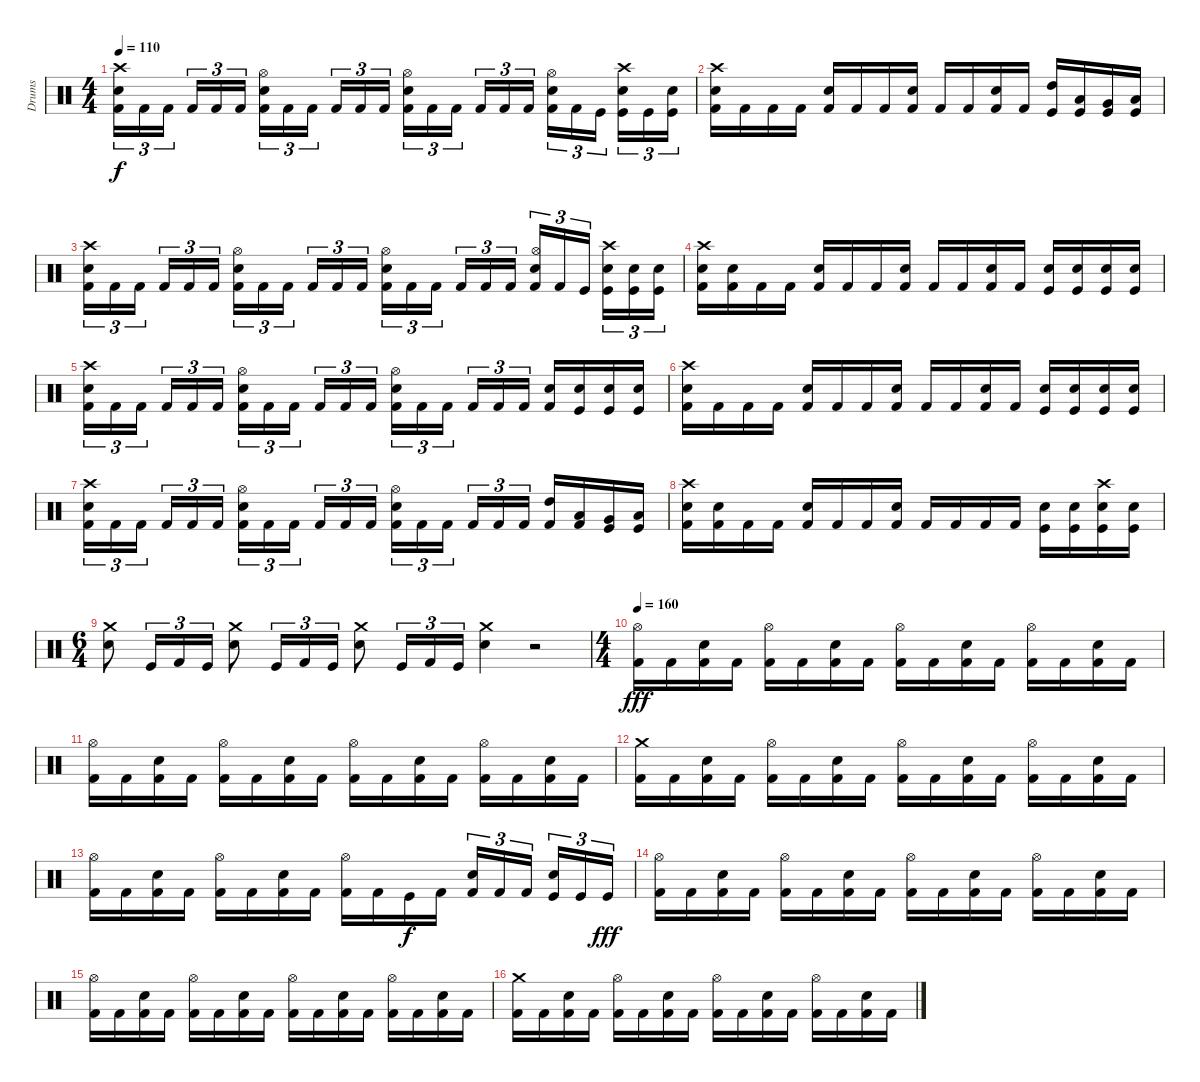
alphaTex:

\track ("Drums" "Drums") {instrument percussion}
\staff {score}
\articulation defaults
\ts (4 4)
\tempo 110
\clef neutral
\ks c
("Crash high (hit)" "Electric Snare (hit)" "Kick (hit) 2").16{tu (3 2) dy f} "Kick (hit) 2".16{tu (3 2)} "Kick (hit) 2".16{tu (3 2)} "Kick (hit) 2".16{tu (3 2)} "Kick (hit) 2".16{tu (3 2)} "Kick (hit) 2".16{tu (3 2)} ("Hi-Hat (open)" "Electric Snare (hit)" "Kick (hit) 2").16{tu (3 2)} "Kick (hit) 2".16{tu (3 2)} "Kick (hit) 2".16{tu (3 2)} "Kick (hit) 2".16{tu (3 2)} "Kick (hit) 2".16{tu (3 2)} "Kick (hit) 2".16{tu (3 2)} ("Hi-Hat (open)" "Electric Snare (hit)" "Kick (hit) 2").16{tu (3 2)} "Kick (hit) 2".16{tu (3 2)} "Kick (hit) 2".16{tu (3 2)} "Kick (hit) 2".16{tu (3 2)} "Kick (hit) 2".16{tu (3 2)} "Kick (hit) 2".16{tu (3 2)} ("Hi-Hat (open)" "Electric Snare (hit)" "Kick (hit) 2").16{tu (3 2)} "Kick (hit) 2".16{tu (3 2)} "Kick (hit)".16{tu (3 2)} ("Crash high (hit)" "Snare (hit) 2" "Kick (hit)").16{tu (3 2)} "Kick (hit)".16{tu (3 2)} ("Snare (hit) 2" "Kick (hit)").16{tu (3 2)} |
("Crash high (hit)" "Electric Snare (hit)" "Kick (hit) 2").16 "Kick (hit) 2".16 "Kick (hit) 2".16 "Kick (hit) 2".16 ("Electric Snare (hit)" "Kick (hit) 2").16 "Kick (hit) 2".16 "Kick (hit) 2".16 ("Electric Snare (hit)" "Kick (hit) 2").16 "Kick (hit) 2".16 "Kick (hit) 2".16 ("Electric Snare (hit)" "Kick (hit) 2").16 "Kick (hit) 2".16 ("High Tom (hit)" "Kick (hit)").16 ("Low Tom (hit)" "Kick (hit)").16 ("Very Low Tom (hit)" "Kick (hit)").16 ("Low Floor Tom (hit)" "Kick (hit)").16 |
("Crash high (hit)" "Electric Snare (hit)" "Kick (hit) 2").16{tu (3 2)} "Kick (hit) 2".16{tu (3 2)} "Kick (hit) 2".16{tu (3 2)} "Kick (hit) 2".16{tu (3 2)} "Kick (hit) 2".16{tu (3 2)} "Kick (hit) 2".16{tu (3 2)} ("Hi-Hat (open)" "Electric Snare (hit)" "Kick (hit) 2").16{tu (3 2)} "Kick (hit) 2".16{tu (3 2)} "Kick (hit) 2".16{tu (3 2)} "Kick (hit) 2".16{tu (3 2)} "Kick (hit) 2".16{tu (3 2)} "Kick (hit) 2".16{tu (3 2)} ("Hi-Hat (open)" "Electric Snare (hit)" "Kick (hit) 2").16{tu (3 2)} "Kick (hit) 2".16{tu (3 2)} "Kick (hit) 2".16{tu (3 2)} "Kick (hit) 2".16{tu (3 2)} "Kick (hit) 2".16{tu (3 2)} "Kick (hit) 2".16{tu (3 2)} ("Hi-Hat (open)" "Snare (hit) 2" "Kick (hit) 2").16{tu (3 2)} "Kick (hit) 2".16{tu (3 2)} "Kick (hit)".16{tu (3 2)} ("Crash high (hit)" "Snare (hit) 2" "Kick (hit)").16{tu (3 2)} ("Snare (hit) 2" "Kick (hit)").16{tu (3 2)} ("Snare (hit) 2" "Kick (hit)").16{tu (3 2)} |
("Crash high (hit)" "Electric Snare (hit)" "Kick (hit) 2").16 ("Electric Snare (hit)" "Kick (hit) 2").16 "Kick (hit) 2".16 "Kick (hit) 2".16 ("Electric Snare (hit)" "Kick (hit) 2").16 "Kick (hit) 2".16 "Kick (hit) 2".16 ("Electric Snare (hit)" "Kick (hit) 2").16 "Kick (hit) 2".16 "Kick (hit) 2".16 ("Electric Snare (hit)" "Kick (hit) 2").16 "Kick (hit) 2".16 ("Electric Snare (hit)" "Kick (hit)").16 ("Electric Snare (hit)" "Kick (hit)").16 ("Electric Snare (hit)" "Kick (hit)").16 ("Electric Snare (hit)" "Kick (hit)").16 |
("Crash high (hit)" "Electric Snare (hit)" "Kick (hit) 2").16{tu (3 2)} "Kick (hit) 2".16{tu (3 2)} "Kick (hit) 2".16{tu (3 2)} "Kick (hit) 2".16{tu (3 2)} "Kick (hit) 2".16{tu (3 2)} "Kick (hit) 2".16{tu (3 2)} ("Hi-Hat (open)" "Electric Snare (hit)" "Kick (hit) 2").16{tu (3 2)} "Kick (hit) 2".16{tu (3 2)} "Kick (hit) 2".16{tu (3 2)} "Kick (hit) 2".16{tu (3 2)} "Kick (hit) 2".16{tu (3 2)} "Kick (hit) 2".16{tu (3 2)} ("Hi-Hat (open)" "Electric Snare (hit)" "Kick (hit) 2").16{tu (3 2)} "Kick (hit) 2".16{tu (3 2)} "Kick (hit) 2".16{tu (3 2)} "Kick (hit) 2".16{tu (3 2)} "Kick (hit) 2".16{tu (3 2)} "Kick (hit) 2".16{tu (3 2)} ("Snare (hit) 2" "Kick (hit) 2").16 ("Snare (hit) 2" "Kick (hit)").16 ("Snare (hit) 2" "Kick (hit)").16 ("Snare (hit) 2" "Kick (hit)").16 |
("Crash high (hit)" "Electric Snare (hit)" "Kick (hit) 2").16 "Kick (hit) 2".16 "Kick (hit) 2".16 "Kick (hit) 2".16 ("Electric Snare (hit)" "Kick (hit) 2").16 "Kick (hit) 2".16 "Kick (hit) 2".16 ("Electric Snare (hit)" "Kick (hit) 2").16 "Kick (hit) 2".16 "Kick (hit) 2".16 ("Electric Snare (hit)" "Kick (hit) 2").16 "Kick (hit) 2".16 ("Electric Snare (hit)" "Kick (hit)").16 ("Electric Snare (hit)" "Kick (hit)").16 ("Electric Snare (hit)" "Kick (hit)").16 ("Electric Snare (hit)" "Kick (hit)").16 |
("Crash high (hit)" "Electric Snare (hit)" "Kick (hit) 2").16{tu (3 2)} "Kick (hit) 2".16{tu (3 2)} "Kick (hit) 2".16{tu (3 2)} "Kick (hit) 2".16{tu (3 2)} "Kick (hit) 2".16{tu (3 2)} "Kick (hit) 2".16{tu (3 2)} ("Hi-Hat (open)" "Electric Snare (hit)" "Kick (hit) 2").16{tu (3 2)} "Kick (hit) 2".16{tu (3 2)} "Kick (hit) 2".16{tu (3 2)} "Kick (hit) 2".16{tu (3 2)} "Kick (hit) 2".16{tu (3 2)} "Kick (hit) 2".16{tu (3 2)} ("Hi-Hat (open)" "Electric Snare (hit)" "Kick (hit) 2").16{tu (3 2)} "Kick (hit) 2".16{tu (3 2)} "Kick (hit) 2".16{tu (3 2)} "Kick (hit) 2".16{tu (3 2)} "Kick (hit) 2".16{tu (3 2)} "Kick (hit) 2".16{tu (3 2)} ("High Tom (hit)" "Kick (hit) 2").16 ("Low Tom (hit)" "Kick (hit) 2").16 ("Very Low Tom (hit)" "Kick (hit)").16 ("Low Floor Tom (hit)" "Kick (hit)").16 |
("Crash high (hit)" "Electric Snare (hit)" "Kick (hit) 2").16 ("Electric Snare (hit)" "Kick (hit) 2").16 "Kick (hit) 2".16 "Kick (hit) 2".16 ("Electric Snare (hit)" "Kick (hit) 2").16 "Kick (hit) 2".16 "Kick (hit) 2".16 ("Electric Snare (hit)" "Kick (hit) 2").16 "Kick (hit) 2".16 "Kick (hit) 2".16 "Kick (hit) 2".16 "Kick (hit) 2".16 ("Snare (hit) 2" "Kick (hit)").16 ("Snare (hit) 2" "Kick (hit)").16 ("Crash high (hit)" "Electric Snare (hit)" "Kick (hit)").16 ("Electric Snare (hit)" "Kick (hit)").16 |
\ts (6 4)
("Crash medium (hit)" "Electric Snare (hit)").8 "Kick (hit)".16{tu (3 2)} "Kick (hit) 2".16{tu (3 2)} "Kick (hit)".16{tu (3 2)} ("Crash medium (hit)" "Electric Snare (hit)").8 "Kick (hit)".16{tu (3 2)} "Kick (hit) 2".16{tu (3 2)} "Kick (hit)".16{tu (3 2)} ("Crash medium (hit)" "Electric Snare (hit)").8 "Kick (hit)".16{tu (3 2)} "Kick (hit) 2".16{tu (3 2)} "Kick (hit)".16{tu (3 2)} ("Crash medium (hit)" "Electric Snare (hit)").4 r.2 |
\ts (4 4)
\tempo 160
("Hi-Hat (open)" "Kick (hit) 2").16{dy fff} "Kick (hit) 2".16 ("Snare (hit) 2" "Kick (hit) 2").16 "Kick (hit) 2".16 ("Hi-Hat (open)" "Kick (hit) 2").16 "Kick (hit) 2".16 ("Snare (hit) 2" "Kick (hit) 2").16 "Kick (hit) 2".16 ("Hi-Hat (open)" "Kick (hit) 2").16 "Kick (hit) 2".16 ("Snare (hit) 2" "Kick (hit) 2").16 "Kick (hit) 2".16 ("Hi-Hat (open)" "Kick (hit) 2").16 "Kick (hit) 2".16 ("Snare (hit) 2" "Kick (hit) 2").16 "Kick (hit) 2".16 |
("Hi-Hat (open)" "Kick (hit) 2").16 "Kick (hit) 2".16 ("Snare (hit) 2" "Kick (hit) 2").16 "Kick (hit) 2".16 ("Hi-Hat (open)" "Kick (hit) 2").16 "Kick (hit) 2".16 ("Snare (hit) 2" "Kick (hit) 2").16 "Kick (hit) 2".16 ("Hi-Hat (open)" "Kick (hit) 2").16 "Kick (hit) 2".16 ("Snare (hit) 2" "Kick (hit) 2").16 "Kick (hit) 2".16 ("Hi-Hat (open)" "Kick (hit) 2").16 "Kick (hit) 2".16 ("Snare (hit) 2" "Kick (hit) 2").16 "Kick (hit) 2".16 |
("Crash medium (hit)" "Kick (hit) 2").16 "Kick (hit) 2".16 ("Snare (hit) 2" "Kick (hit) 2").16 "Kick (hit) 2".16 ("Hi-Hat (open)" "Kick (hit) 2").16 "Kick (hit) 2".16 ("Snare (hit) 2" "Kick (hit) 2").16 "Kick (hit) 2".16 ("Hi-Hat (open)" "Kick (hit) 2").16 "Kick (hit) 2".16 ("Snare (hit) 2" "Kick (hit) 2").16 "Kick (hit) 2".16 ("Hi-Hat (open)" "Kick (hit) 2").16 "Kick (hit) 2".16 ("Snare (hit) 2" "Kick (hit) 2").16 "Kick (hit) 2".16 |
("Hi-Hat (open)" "Kick (hit) 2").16 "Kick (hit) 2".16 ("Snare (hit) 2" "Kick (hit) 2").16 "Kick (hit) 2".16 ("Hi-Hat (open)" "Kick (hit) 2").16 "Kick (hit) 2".16 ("Snare (hit) 2" "Kick (hit) 2").16 "Kick (hit) 2".16 ("Hi-Hat (open)" "Kick (hit) 2").16 "Kick (hit) 2".16 "Kick (hit)".16{dy f} "Kick (hit) 2".16 ("Snare (hit) 2" "Kick (hit) 2").16{tu (3 2)} "Kick (hit) 2".16{tu (3 2)} "Kick (hit) 2".16{tu (3 2)} ("Snare (hit) 2" "Kick (hit)").16{tu (3 2)} "Kick (hit)".16{tu (3 2)} "Kick (hit)".16{tu (3 2) dy fff} |
("Hi-Hat (open)" "Kick (hit) 2").16 "Kick (hit) 2".16 ("Snare (hit) 2" "Kick (hit) 2").16 "Kick (hit) 2".16 ("Hi-Hat (open)" "Kick (hit) 2").16 "Kick (hit) 2".16 ("Snare (hit) 2" "Kick (hit) 2").16 "Kick (hit) 2".16 ("Hi-Hat (open)" "Kick (hit) 2").16 "Kick (hit) 2".16 ("Snare (hit) 2" "Kick (hit) 2").16 "Kick (hit) 2".16 ("Hi-Hat (open)" "Kick (hit) 2").16 "Kick (hit) 2".16 ("Snare (hit) 2" "Kick (hit) 2").16 "Kick (hit) 2".16 |
("Hi-Hat (open)" "Kick (hit) 2").16 "Kick (hit) 2".16 ("Snare (hit) 2" "Kick (hit) 2").16 "Kick (hit) 2".16 ("Hi-Hat (open)" "Kick (hit) 2").16 "Kick (hit) 2".16 ("Snare (hit) 2" "Kick (hit) 2").16 "Kick (hit) 2".16 ("Hi-Hat (open)" "Kick (hit) 2").16 "Kick (hit) 2".16 ("Snare (hit) 2" "Kick (hit) 2").16 "Kick (hit) 2".16 ("Hi-Hat (open)" "Kick (hit) 2").16 "Kick (hit) 2".16 ("Snare (hit) 2" "Kick (hit) 2").16 "Kick (hit) 2".16 |
("Crash medium (hit)" "Kick (hit) 2").16 "Kick (hit) 2".16 ("Snare (hit) 2" "Kick (hit) 2").16 "Kick (hit) 2".16 ("Hi-Hat (open)" "Kick (hit) 2").16 "Kick (hit) 2".16 ("Snare (hit) 2" "Kick (hit) 2").16 "Kick (hit) 2".16 ("Hi-Hat (open)" "Kick (hit) 2").16 "Kick (hit) 2".16 ("Snare (hit) 2" "Kick (hit) 2").16 "Kick (hit) 2".16 ("Hi-Hat (open)" "Kick (hit) 2").16 "Kick (hit) 2".16 ("Snare (hit) 2" "Kick (hit) 2").16 "Kick (hit) 2".16
